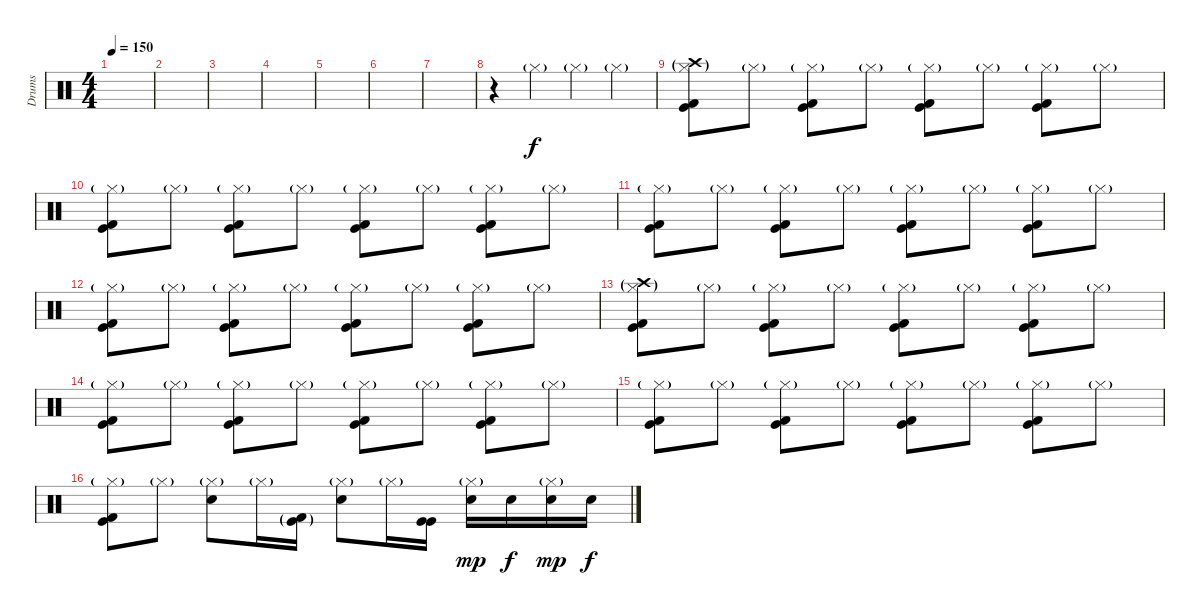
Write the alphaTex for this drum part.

\track ("Drums" "Drums") {instrument percussion}
\staff {score}
\articulation defaults
\ts (4 4)
\tempo 150
\clef neutral
\ks c
|
|
|
|
|
|
|
r.4 "Hi-Hat (closed)"{g}.4 "Hi-Hat (closed)"{g}.4 "Hi-Hat (closed)"{g}.4 |
("Crash high (hit)"{g} "Hi-Hat (closed)"{g} "Kick (hit) 2" "Kick (hit)").8 "Hi-Hat (closed)"{g}.8 ("Hi-Hat (closed)"{g} "Kick (hit) 2" "Kick (hit)").8 "Hi-Hat (closed)"{g}.8 ("Hi-Hat (closed)"{g} "Kick (hit) 2" "Kick (hit)").8 "Hi-Hat (closed)"{g}.8 ("Hi-Hat (closed)"{g} "Kick (hit) 2" "Kick (hit)").8 "Hi-Hat (closed)"{g}.8 |
("Hi-Hat (closed)"{g} "Kick (hit) 2" "Kick (hit)").8 "Hi-Hat (closed)"{g}.8 ("Hi-Hat (closed)"{g} "Kick (hit) 2" "Kick (hit)").8 "Hi-Hat (closed)"{g}.8 ("Hi-Hat (closed)"{g} "Kick (hit) 2" "Kick (hit)").8 "Hi-Hat (closed)"{g}.8 ("Hi-Hat (closed)"{g} "Kick (hit) 2" "Kick (hit)").8 "Hi-Hat (closed)"{g}.8 |
("Hi-Hat (closed)"{g} "Kick (hit) 2" "Kick (hit)").8 "Hi-Hat (closed)"{g}.8 ("Hi-Hat (closed)"{g} "Kick (hit) 2" "Kick (hit)").8 "Hi-Hat (closed)"{g}.8 ("Hi-Hat (closed)"{g} "Kick (hit) 2" "Kick (hit)").8 "Hi-Hat (closed)"{g}.8 ("Hi-Hat (closed)"{g} "Kick (hit) 2" "Kick (hit)").8 "Hi-Hat (closed)"{g}.8 |
("Hi-Hat (closed)"{g} "Kick (hit) 2" "Kick (hit)").8 "Hi-Hat (closed)"{g}.8 ("Hi-Hat (closed)"{g} "Kick (hit) 2" "Kick (hit)").8 "Hi-Hat (closed)"{g}.8 ("Hi-Hat (closed)"{g} "Kick (hit) 2" "Kick (hit)").8 "Hi-Hat (closed)"{g}.8 ("Hi-Hat (closed)"{g} "Kick (hit) 2" "Kick (hit)").8 "Hi-Hat (closed)"{g}.8 |
("Crash high (hit)"{g} "Hi-Hat (closed)"{g} "Kick (hit) 2" "Kick (hit)").8 "Hi-Hat (closed)"{g}.8 ("Hi-Hat (closed)"{g} "Kick (hit) 2" "Kick (hit)").8 "Hi-Hat (closed)"{g}.8 ("Hi-Hat (closed)"{g} "Kick (hit) 2" "Kick (hit)").8 "Hi-Hat (closed)"{g}.8 ("Hi-Hat (closed)"{g} "Kick (hit) 2" "Kick (hit)").8 "Hi-Hat (closed)"{g}.8 |
("Hi-Hat (closed)"{g} "Kick (hit) 2" "Kick (hit)").8 "Hi-Hat (closed)"{g}.8 ("Hi-Hat (closed)"{g} "Kick (hit) 2" "Kick (hit)").8 "Hi-Hat (closed)"{g}.8 ("Hi-Hat (closed)"{g} "Kick (hit) 2" "Kick (hit)").8 "Hi-Hat (closed)"{g}.8 ("Hi-Hat (closed)"{g} "Kick (hit) 2" "Kick (hit)").8 "Hi-Hat (closed)"{g}.8 |
("Hi-Hat (closed)"{g} "Kick (hit) 2" "Kick (hit)").8 "Hi-Hat (closed)"{g}.8 ("Hi-Hat (closed)"{g} "Kick (hit) 2" "Kick (hit)").8 "Hi-Hat (closed)"{g}.8 ("Hi-Hat (closed)"{g} "Kick (hit) 2" "Kick (hit)").8 "Hi-Hat (closed)"{g}.8 ("Hi-Hat (closed)"{g} "Kick (hit) 2" "Kick (hit)").8 "Hi-Hat (closed)"{g}.8 |
("Hi-Hat (closed)"{g} "Kick (hit) 2" "Kick (hit)").8 "Hi-Hat (closed)"{g}.8 ("Hi-Hat (closed)"{g} "Snare (hit) 2").8 "Hi-Hat (closed)"{g}.16 ("Kick (hit) 2"{g} "Kick (hit)"{g}).16 ("Hi-Hat (closed)"{g} "Snare (hit) 2").8 "Hi-Hat (closed)"{g}.16 ("Kick (hit)" "Kick (hit)").16{dy f} ("Hi-Hat (closed)"{g} "Snare (hit) 2").16{dy mp} "Snare (hit) 2".16{dy f} ("Hi-Hat (closed)"{g} "Snare (hit) 2").16{dy mp} "Snare (hit) 2".16{dy f}
